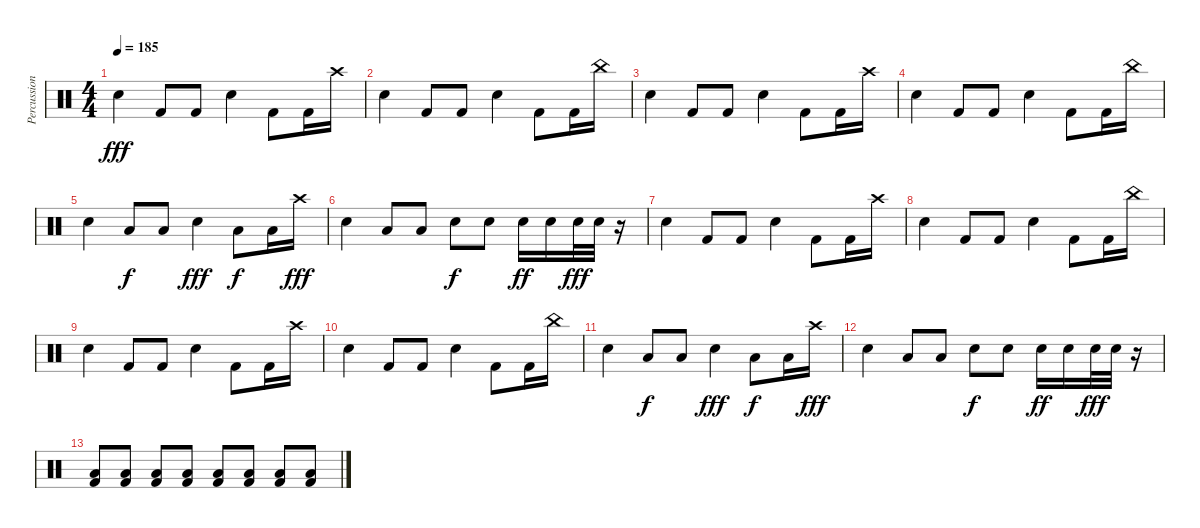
\track ("Percussions" "Percussion") {instrument percussion}
\staff {score}
\articulation defaults
\ts (4 4)
\tempo 185
\clef neutral
\ks c "Electric Snare (hit)".4{dy fff} "Kick (hit) 2".8 "Kick (hit) 2".8 "Electric Snare (hit)".4 "Kick (hit) 2".8 "Kick (hit) 2".16 "Crash high (hit)".16
|
"Electric Snare (hit)".4 "Kick (hit) 2".8 "Kick (hit) 2".8 "Electric Snare (hit)".4 "Kick (hit) 2".8 "Kick (hit) 2".16 "China (hit)".16 |
"Electric Snare (hit)".4 "Kick (hit) 2".8 "Kick (hit) 2".8 "Electric Snare (hit)".4 "Kick (hit) 2".8 "Kick (hit) 2".16 "Crash high (hit)".16 |
"Electric Snare (hit)".4 "Kick (hit) 2".8 "Kick (hit) 2".8 "Electric Snare (hit)".4 "Kick (hit) 2".8 "Kick (hit) 2".16 "China (hit)".16 |
"Electric Snare (hit)".4 "Low Tom (hit)".8{dy f} "Low Tom (hit)".8 "Electric Snare (hit)".4{dy fff} "Low Tom (hit)".8{dy f} "Low Tom (hit)".16 "Crash high (hit)".16{dy fff} |
"Electric Snare (hit)".4 "Low Tom (hit)".8 "Low Tom (hit)".8 "Electric Snare (hit)".8{dy f} "Electric Snare (hit)".8 "Electric Snare (hit)".16{dy ff} "Electric Snare (hit)".16 "Electric Snare (hit)".32{dy fff} "Electric Snare (hit)".32 r.16 |
"Electric Snare (hit)".4 "Kick (hit) 2".8 "Kick (hit) 2".8 "Electric Snare (hit)".4 "Kick (hit) 2".8 "Kick (hit) 2".16 "Crash high (hit)".16 |
"Electric Snare (hit)".4 "Kick (hit) 2".8 "Kick (hit) 2".8 "Electric Snare (hit)".4 "Kick (hit) 2".8 "Kick (hit) 2".16 "China (hit)".16 |
"Electric Snare (hit)".4 "Kick (hit) 2".8 "Kick (hit) 2".8 "Electric Snare (hit)".4 "Kick (hit) 2".8 "Kick (hit) 2".16 "Crash high (hit)".16 |
"Electric Snare (hit)".4 "Kick (hit) 2".8 "Kick (hit) 2".8 "Electric Snare (hit)".4 "Kick (hit) 2".8 "Kick (hit) 2".16 "China (hit)".16 |
"Electric Snare (hit)".4 "Low Tom (hit)".8{dy f} "Low Tom (hit)".8 "Electric Snare (hit)".4{dy fff} "Low Tom (hit)".8{dy f} "Low Tom (hit)".16 "Crash high (hit)".16{dy fff} |
"Electric Snare (hit)".4 "Low Tom (hit)".8 "Low Tom (hit)".8 "Electric Snare (hit)".8{dy f} "Electric Snare (hit)".8 "Electric Snare (hit)".16{dy ff} "Electric Snare (hit)".16 "Electric Snare (hit)".32{dy fff} "Electric Snare (hit)".32 r.16 |
("Low Tom (hit)" "Kick (hit) 2").8 ("Low Tom (hit)" "Kick (hit) 2").8 ("Low Floor Tom (hit)" "Kick (hit) 2").8 ("Low Tom (hit)" "Kick (hit) 2").8 ("Low Floor Tom (hit)" "Kick (hit) 2").8 ("Low Tom (hit)" "Kick (hit) 2").8 ("Low Tom (hit)" "Kick (hit) 2").8 ("Low Tom (hit)" "Kick (hit) 2").8
